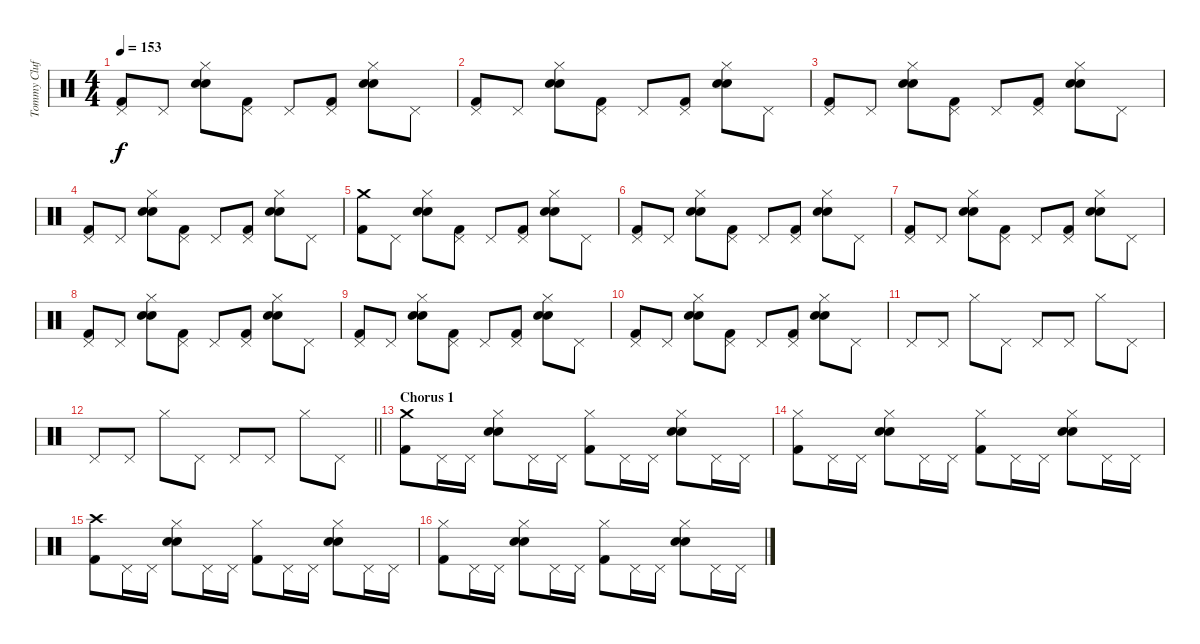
\track ("Tommy Clufetos" "Tommy Cluf") {instrument percussion}
\staff {score}
\articulation defaults
\ts (4 4)
\tempo 153
\clef neutral
\ks c
("Pedal Hi-Hat (hit)" "Kick (hit) 2").8{dy f} "Pedal Hi-Hat (hit)".8 ("Hi-Hat (closed)" "Electric Snare (hit)" "Snare (hit) 2").8 ("Pedal Hi-Hat (hit)" "Kick (hit) 2").8 "Pedal Hi-Hat (hit)".8 ("Pedal Hi-Hat (hit)" "Kick (hit) 2").8 ("Hi-Hat (closed)" "Electric Snare (hit)" "Snare (hit) 2").8 "Pedal Hi-Hat (hit)".8 |
("Pedal Hi-Hat (hit)" "Kick (hit) 2").8 "Pedal Hi-Hat (hit)".8 ("Hi-Hat (closed)" "Electric Snare (hit)" "Snare (hit) 2").8 ("Pedal Hi-Hat (hit)" "Kick (hit) 2").8 "Pedal Hi-Hat (hit)".8 ("Pedal Hi-Hat (hit)" "Kick (hit) 2").8 ("Hi-Hat (closed)" "Electric Snare (hit)" "Snare (hit) 2").8 "Pedal Hi-Hat (hit)".8 |
("Pedal Hi-Hat (hit)" "Kick (hit) 2").8 "Pedal Hi-Hat (hit)".8 ("Hi-Hat (closed)" "Electric Snare (hit)" "Snare (hit) 2").8 ("Pedal Hi-Hat (hit)" "Kick (hit) 2").8 "Pedal Hi-Hat (hit)".8 ("Pedal Hi-Hat (hit)" "Kick (hit) 2").8 ("Hi-Hat (closed)" "Electric Snare (hit)" "Snare (hit) 2").8 "Pedal Hi-Hat (hit)".8 |
("Pedal Hi-Hat (hit)" "Kick (hit) 2").8 "Pedal Hi-Hat (hit)".8 ("Hi-Hat (closed)" "Electric Snare (hit)" "Snare (hit) 2").8 ("Pedal Hi-Hat (hit)" "Kick (hit) 2").8 "Pedal Hi-Hat (hit)".8 ("Pedal Hi-Hat (hit)" "Kick (hit) 2").8 ("Hi-Hat (closed)" "Electric Snare (hit)" "Snare (hit) 2").8 "Pedal Hi-Hat (hit)".8 |
("Crash medium (hit)" "Kick (hit) 2").8 "Pedal Hi-Hat (hit)".8 ("Hi-Hat (closed)" "Electric Snare (hit)" "Snare (hit) 2").8 ("Pedal Hi-Hat (hit)" "Kick (hit) 2").8 "Pedal Hi-Hat (hit)".8 ("Pedal Hi-Hat (hit)" "Kick (hit) 2").8 ("Hi-Hat (closed)" "Electric Snare (hit)" "Snare (hit) 2").8 "Pedal Hi-Hat (hit)".8 |
("Pedal Hi-Hat (hit)" "Kick (hit) 2").8 "Pedal Hi-Hat (hit)".8 ("Hi-Hat (closed)" "Electric Snare (hit)" "Snare (hit) 2").8 ("Pedal Hi-Hat (hit)" "Kick (hit) 2").8 "Pedal Hi-Hat (hit)".8 ("Pedal Hi-Hat (hit)" "Kick (hit) 2").8 ("Hi-Hat (closed)" "Electric Snare (hit)" "Snare (hit) 2").8 "Pedal Hi-Hat (hit)".8 |
("Pedal Hi-Hat (hit)" "Kick (hit) 2").8 "Pedal Hi-Hat (hit)".8 ("Hi-Hat (closed)" "Electric Snare (hit)" "Snare (hit) 2").8 ("Pedal Hi-Hat (hit)" "Kick (hit) 2").8 "Pedal Hi-Hat (hit)".8 ("Pedal Hi-Hat (hit)" "Kick (hit) 2").8 ("Hi-Hat (closed)" "Electric Snare (hit)" "Snare (hit) 2").8 "Pedal Hi-Hat (hit)".8 |
("Pedal Hi-Hat (hit)" "Kick (hit) 2").8 "Pedal Hi-Hat (hit)".8 ("Hi-Hat (closed)" "Electric Snare (hit)" "Snare (hit) 2").8 ("Pedal Hi-Hat (hit)" "Kick (hit) 2").8 "Pedal Hi-Hat (hit)".8 ("Pedal Hi-Hat (hit)" "Kick (hit) 2").8 ("Hi-Hat (closed)" "Electric Snare (hit)" "Snare (hit) 2").8 "Pedal Hi-Hat (hit)".8 |
("Pedal Hi-Hat (hit)" "Kick (hit) 2").8 "Pedal Hi-Hat (hit)".8 ("Hi-Hat (closed)" "Electric Snare (hit)" "Snare (hit) 2").8 ("Pedal Hi-Hat (hit)" "Kick (hit) 2").8 "Pedal Hi-Hat (hit)".8 ("Pedal Hi-Hat (hit)" "Kick (hit) 2").8 ("Hi-Hat (closed)" "Electric Snare (hit)" "Snare (hit) 2").8 "Pedal Hi-Hat (hit)".8 |
("Pedal Hi-Hat (hit)" "Kick (hit) 2").8 "Pedal Hi-Hat (hit)".8 ("Hi-Hat (closed)" "Electric Snare (hit)" "Snare (hit) 2").8 ("Pedal Hi-Hat (hit)" "Kick (hit) 2").8 "Pedal Hi-Hat (hit)".8 ("Pedal Hi-Hat (hit)" "Kick (hit) 2").8 ("Hi-Hat (closed)" "Electric Snare (hit)" "Snare (hit) 2").8 "Pedal Hi-Hat (hit)".8 |
"Pedal Hi-Hat (hit)".8 "Pedal Hi-Hat (hit)".8 "Hi-Hat (closed)".8 "Pedal Hi-Hat (hit)".8 "Pedal Hi-Hat (hit)".8 "Pedal Hi-Hat (hit)".8 "Hi-Hat (closed)".8 "Pedal Hi-Hat (hit)".8 |
\barLineRight lightlight "Pedal Hi-Hat (hit)".8 "Pedal Hi-Hat (hit)".8 "Hi-Hat (closed)".8 "Pedal Hi-Hat (hit)".8 "Pedal Hi-Hat (hit)".8 "Pedal Hi-Hat (hit)".8 "Hi-Hat (closed)".8 "Pedal Hi-Hat (hit)".8
|
\section ("" "Chorus 1")
("Crash medium (hit)" "Kick (hit) 2").8 "Pedal Hi-Hat (hit)".16 "Pedal Hi-Hat (hit)".16 ("Hi-Hat (closed)" "Electric Snare (hit)" "Snare (hit) 2").8 "Pedal Hi-Hat (hit)".16 "Pedal Hi-Hat (hit)".16 ("Hi-Hat (closed)" "Kick (hit) 2").8 "Pedal Hi-Hat (hit)".16 "Pedal Hi-Hat (hit)".16 ("Hi-Hat (closed)" "Electric Snare (hit)" "Snare (hit) 2").8 "Pedal Hi-Hat (hit)".16 "Pedal Hi-Hat (hit)".16 |
("Hi-Hat (closed)" "Kick (hit) 2").8 "Pedal Hi-Hat (hit)".16 "Pedal Hi-Hat (hit)".16 ("Hi-Hat (closed)" "Electric Snare (hit)" "Snare (hit) 2").8 "Pedal Hi-Hat (hit)".16 "Pedal Hi-Hat (hit)".16 ("Hi-Hat (closed)" "Kick (hit) 2").8 "Pedal Hi-Hat (hit)".16 "Pedal Hi-Hat (hit)".16 ("Hi-Hat (closed)" "Electric Snare (hit)" "Snare (hit) 2").8 "Pedal Hi-Hat (hit)".16 "Pedal Hi-Hat (hit)".16 |
("Crash high (hit)" "Kick (hit) 2").8 "Pedal Hi-Hat (hit)".16 "Pedal Hi-Hat (hit)".16 ("Hi-Hat (closed)" "Electric Snare (hit)" "Snare (hit) 2").8 "Pedal Hi-Hat (hit)".16 "Pedal Hi-Hat (hit)".16 ("Hi-Hat (closed)" "Kick (hit) 2").8 "Pedal Hi-Hat (hit)".16 "Pedal Hi-Hat (hit)".16 ("Hi-Hat (closed)" "Electric Snare (hit)" "Snare (hit) 2").8 "Pedal Hi-Hat (hit)".16 "Pedal Hi-Hat (hit)".16 |
("Hi-Hat (closed)" "Kick (hit) 2").8 "Pedal Hi-Hat (hit)".16 "Pedal Hi-Hat (hit)".16 ("Hi-Hat (closed)" "Electric Snare (hit)" "Snare (hit) 2").8 "Pedal Hi-Hat (hit)".16 "Pedal Hi-Hat (hit)".16 ("Hi-Hat (closed)" "Kick (hit) 2").8 "Pedal Hi-Hat (hit)".16 "Pedal Hi-Hat (hit)".16 ("Hi-Hat (closed)" "Electric Snare (hit)" "Snare (hit) 2").8 "Pedal Hi-Hat (hit)".16 "Pedal Hi-Hat (hit)".16
